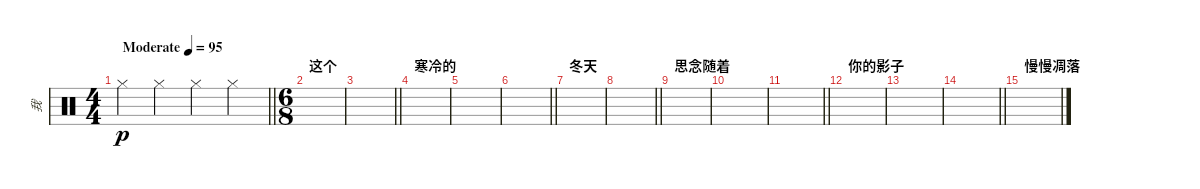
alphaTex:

\track ("我" "我") {instrument percussion}
\staff {score}
\articulation defaults
\ts (4 4)
\tempo (95 "Moderate")
\clef neutral
\barLineRight lightlight
\ks c "Hi-Hat (closed)".4{dy p} "Hi-Hat (closed)".4 "Hi-Hat (closed)".4 "Hi-Hat (closed)".4
|
\ts (6 8)
\section ("" "这个")
|
\barLineRight lightlight
|
\section ("" "寒冷的")
|
|
\barLineRight lightlight
|
\section ("" "冬天")
|
\barLineRight lightlight
|
\section ("" "思念随着")
|
|
\barLineRight lightlight
|
\section ("" "你的影子")
|
|
\barLineRight lightlight
|
\section ("" "慢慢凋落")
